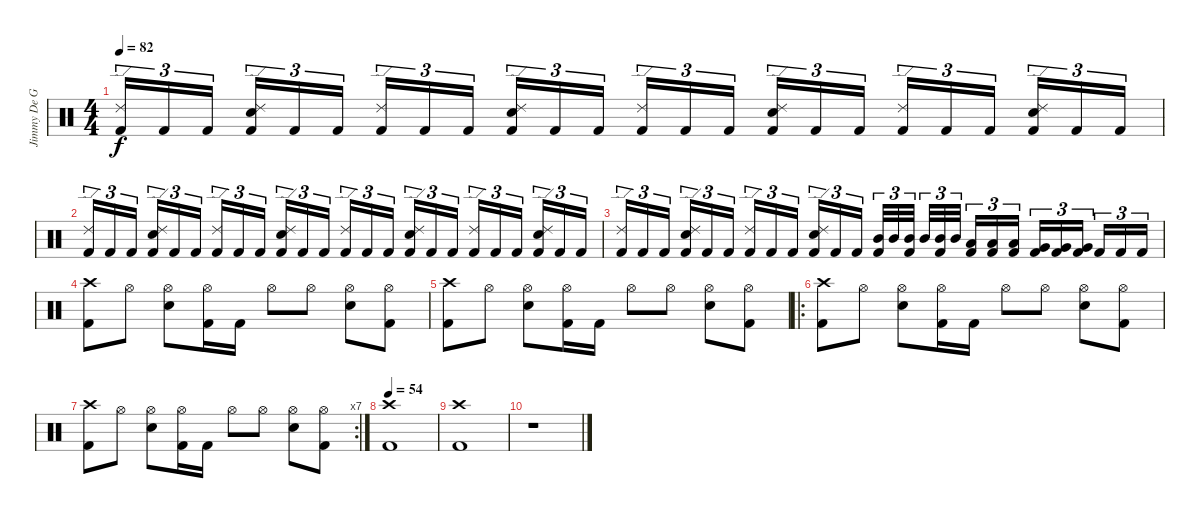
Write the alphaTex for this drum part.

\track ("Jimmy De Grasso" "Jimmy De G") {instrument percussion}
\staff {score}
\articulation defaults
\ts (4 4)
\tempo 82
\clef neutral
\ks c
("Ride (edge) 2" "Kick (hit) 2").16{tu (3 2) dy f} "Kick (hit) 2".16{tu (3 2)} "Kick (hit) 2".16{tu (3 2)} ("Ride (edge) 2" "Snare (hit) 2" "Kick (hit) 2").16{tu (3 2)} "Kick (hit) 2".16{tu (3 2)} "Kick (hit) 2".16{tu (3 2)} ("Ride (edge) 2" "Kick (hit) 2").16{tu (3 2)} "Kick (hit) 2".16{tu (3 2)} "Kick (hit) 2".16{tu (3 2)} ("Ride (edge) 2" "Snare (hit) 2" "Kick (hit) 2").16{tu (3 2)} "Kick (hit) 2".16{tu (3 2)} "Kick (hit) 2".16{tu (3 2)} ("Ride (edge) 2" "Kick (hit) 2").16{tu (3 2)} "Kick (hit) 2".16{tu (3 2)} "Kick (hit) 2".16{tu (3 2)} ("Ride (edge) 2" "Snare (hit) 2" "Kick (hit) 2").16{tu (3 2)} "Kick (hit) 2".16{tu (3 2)} "Kick (hit) 2".16{tu (3 2)} ("Ride (edge) 2" "Kick (hit) 2").16{tu (3 2)} "Kick (hit) 2".16{tu (3 2)} "Kick (hit) 2".16{tu (3 2)} ("Ride (edge) 2" "Snare (hit) 2" "Kick (hit) 2").16{tu (3 2)} "Kick (hit) 2".16{tu (3 2)} "Kick (hit) 2".16{tu (3 2)} |
("Ride (edge) 2" "Kick (hit) 2").16{tu (3 2)} "Kick (hit) 2".16{tu (3 2)} "Kick (hit) 2".16{tu (3 2)} ("Ride (edge) 2" "Snare (hit) 2" "Kick (hit) 2").16{tu (3 2)} "Kick (hit) 2".16{tu (3 2)} "Kick (hit) 2".16{tu (3 2)} ("Ride (edge) 2" "Kick (hit) 2").16{tu (3 2)} "Kick (hit) 2".16{tu (3 2)} "Kick (hit) 2".16{tu (3 2)} ("Ride (edge) 2" "Snare (hit) 2" "Kick (hit) 2").16{tu (3 2)} "Kick (hit) 2".16{tu (3 2)} "Kick (hit) 2".16{tu (3 2)} ("Ride (edge) 2" "Kick (hit) 2").16{tu (3 2)} "Kick (hit) 2".16{tu (3 2)} "Kick (hit) 2".16{tu (3 2)} ("Ride (edge) 2" "Snare (hit) 2" "Kick (hit) 2").16{tu (3 2)} "Kick (hit) 2".16{tu (3 2)} "Kick (hit) 2".16{tu (3 2)} ("Ride (edge) 2" "Kick (hit) 2").16{tu (3 2)} "Kick (hit) 2".16{tu (3 2)} "Kick (hit) 2".16{tu (3 2)} ("Ride (edge) 2" "Snare (hit) 2" "Kick (hit) 2").16{tu (3 2)} "Kick (hit) 2".16{tu (3 2)} "Kick (hit) 2".16{tu (3 2)} |
("Ride (edge) 2" "Kick (hit) 2").16{tu (3 2)} "Kick (hit) 2".16{tu (3 2)} "Kick (hit) 2".16{tu (3 2)} ("Ride (edge) 2" "Snare (hit) 2" "Kick (hit) 2").16{tu (3 2)} "Kick (hit) 2".16{tu (3 2)} "Kick (hit) 2".16{tu (3 2)} ("Ride (edge) 2" "Kick (hit) 2").16{tu (3 2)} "Kick (hit) 2".16{tu (3 2)} "Kick (hit) 2".16{tu (3 2)} ("Ride (edge) 2" "Snare (hit) 2" "Kick (hit) 2").16{tu (3 2)} "Kick (hit) 2".16{tu (3 2)} "Kick (hit) 2".16{tu (3 2)} ("Mid Tom (hit)" "Kick (hit) 2").32{tu (3 2)} "Mid Tom (hit)".32{tu (3 2)} ("Mid Tom (hit)" "Kick (hit) 2").32{tu (3 2)} "Mid Tom (hit)".32{tu (3 2)} ("Mid Tom (hit)" "Kick (hit) 2").32{tu (3 2)} "Mid Tom (hit)".32{tu (3 2)} ("Low Tom (hit)" "Kick (hit) 2").16{tu (3 2)} ("Low Tom (hit)" "Kick (hit) 2").16{tu (3 2)} ("Low Tom (hit)" "Kick (hit) 2").16{tu (3 2)} ("Very Low Tom (hit)" "Kick (hit) 2").16{tu (3 2)} ("Very Low Tom (hit)" "Kick (hit) 2").16{tu (3 2)} ("Very Low Tom (hit)" "Kick (hit) 2").16{tu (3 2)} "Kick (hit) 2".16{tu (3 2)} "Kick (hit) 2".16{tu (3 2)} "Kick (hit) 2".16{tu (3 2)} |
("Crash high (hit)" "Kick (hit) 2").8 "Hi-Hat (open)".8 ("Hi-Hat (open)" "Snare (hit) 2").8 ("Hi-Hat (open)" "Kick (hit) 2").16 "Kick (hit) 2".16 "Hi-Hat (open)".8 "Hi-Hat (open)".8 ("Hi-Hat (open)" "Snare (hit) 2").8 ("Hi-Hat (open)" "Kick (hit) 2").8 |
("Crash high (hit)" "Kick (hit) 2").8 "Hi-Hat (open)".8 ("Hi-Hat (open)" "Snare (hit) 2").8 ("Hi-Hat (open)" "Kick (hit) 2").16 "Kick (hit) 2".16 "Hi-Hat (open)".8 "Hi-Hat (open)".8 ("Hi-Hat (open)" "Snare (hit) 2").8 ("Hi-Hat (open)" "Kick (hit) 2").8 |
\ro
("Crash high (hit)" "Kick (hit) 2").8 "Hi-Hat (open)".8 ("Hi-Hat (open)" "Snare (hit) 2").8 ("Hi-Hat (open)" "Kick (hit) 2").16 "Kick (hit) 2".16 "Hi-Hat (open)".8 "Hi-Hat (open)".8 ("Hi-Hat (open)" "Snare (hit) 2").8 ("Hi-Hat (open)" "Kick (hit) 2").8 |
\rc 7
("Crash high (hit)" "Kick (hit) 2").8 "Hi-Hat (open)".8 ("Hi-Hat (open)" "Snare (hit) 2").8 ("Hi-Hat (open)" "Kick (hit) 2").16 "Kick (hit) 2".16 "Hi-Hat (open)".8 "Hi-Hat (open)".8 ("Hi-Hat (open)" "Snare (hit) 2").8 ("Hi-Hat (open)" "Kick (hit) 2").8 |
\tempo 54
("Crash high (hit)" "Kick (hit) 2").1 |
("Crash high (hit)" "Kick (hit) 2").1 |
r.1
